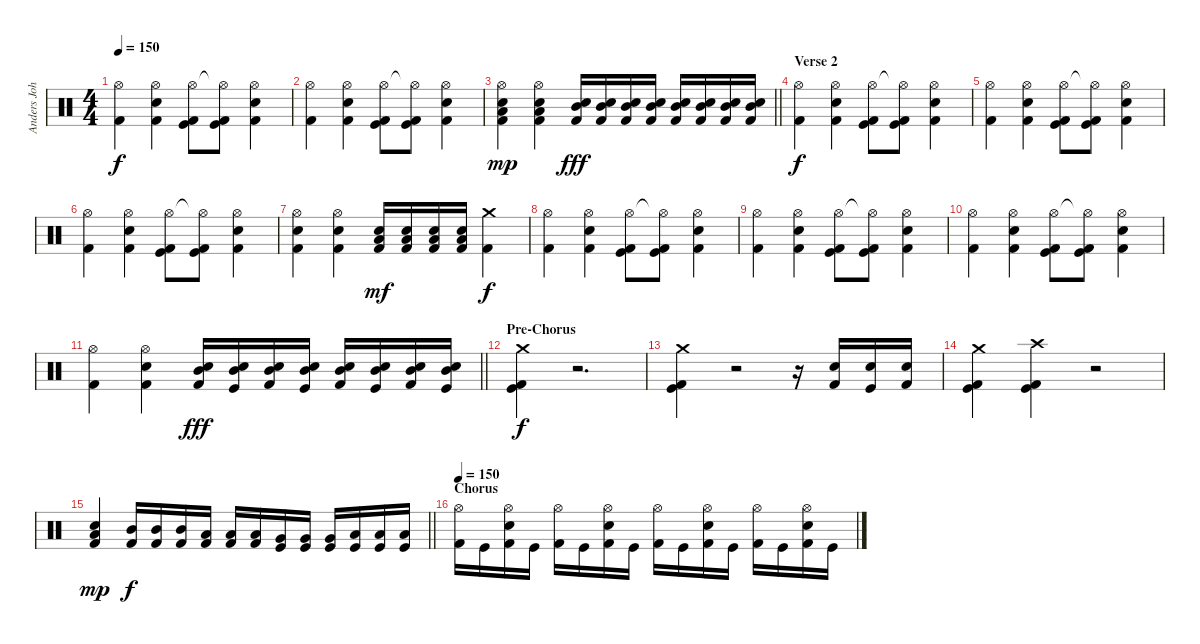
\track ("Anders Johansson" "Anders Joh") {instrument percussion}
\staff {score}
\articulation defaults
\ts (4 4)
\tempo 150
\clef neutral
\ks c
("Hi-Hat (open)" "Kick (hit) 2").4{dy f} ("Hi-Hat (open)" "Electric Snare (hit)" "Kick (hit) 2").4 ("Hi-Hat (open)" "Kick (hit)" "Kick (hit) 2").8 ("Hi-Hat (open)"{t} "Kick (hit)" "Kick (hit) 2").8 ("Hi-Hat (open)" "Electric Snare (hit)" "Kick (hit) 2").4 |
("Hi-Hat (open)" "Kick (hit) 2").4 ("Hi-Hat (open)" "Electric Snare (hit)" "Kick (hit) 2").4 ("Hi-Hat (open)" "Kick (hit)" "Kick (hit) 2").8 ("Hi-Hat (open)"{t} "Kick (hit)" "Kick (hit) 2").8 ("Hi-Hat (open)" "Electric Snare (hit)" "Kick (hit) 2").4 |
\barLineRight lightlight
("Hi-Hat (open)" "Low Tom (hit)" "Electric Snare (hit)" "Kick (hit) 2").4{dy mp} ("Hi-Hat (open)" "Low Tom (hit)" "Electric Snare (hit)" "Kick (hit) 2").4 ("Mid Tom (hit)" "Electric Snare (hit)" "Kick (hit) 2").16{dy fff} ("Mid Tom (hit)" "Electric Snare (hit)" "Kick (hit) 2").16 ("Mid Tom (hit)" "Electric Snare (hit)" "Kick (hit) 2").16 ("Mid Tom (hit)" "Electric Snare (hit)" "Kick (hit) 2").16 ("Mid Tom (hit)" "Electric Snare (hit)" "Kick (hit) 2").16 ("Mid Tom (hit)" "Electric Snare (hit)" "Kick (hit) 2").16 ("Mid Tom (hit)" "Electric Snare (hit)" "Kick (hit) 2").16 ("Mid Tom (hit)" "Electric Snare (hit)" "Kick (hit) 2").16 |
\section ("" "Verse 2")
("Hi-Hat (open)" "Kick (hit) 2").4{dy f} ("Hi-Hat (open)" "Electric Snare (hit)" "Kick (hit) 2").4 ("Hi-Hat (open)" "Kick (hit)" "Kick (hit) 2").8 ("Hi-Hat (open)"{t} "Kick (hit)" "Kick (hit) 2").8 ("Hi-Hat (open)" "Electric Snare (hit)" "Kick (hit) 2").4 |
("Hi-Hat (open)" "Kick (hit) 2").4 ("Hi-Hat (open)" "Electric Snare (hit)" "Kick (hit) 2").4 ("Hi-Hat (open)" "Kick (hit)" "Kick (hit) 2").8 ("Hi-Hat (open)"{t} "Kick (hit)" "Kick (hit) 2").8 ("Hi-Hat (open)" "Electric Snare (hit)" "Kick (hit) 2").4 |
("Hi-Hat (open)" "Kick (hit) 2").4 ("Hi-Hat (open)" "Electric Snare (hit)" "Kick (hit) 2").4 ("Hi-Hat (open)" "Kick (hit)" "Kick (hit) 2").8 ("Hi-Hat (open)"{t} "Kick (hit)" "Kick (hit) 2").8 ("Hi-Hat (open)" "Electric Snare (hit)" "Kick (hit) 2").4 |
("Hi-Hat (open)" "Electric Snare (hit)" "Kick (hit) 2").4 ("Hi-Hat (open)" "Electric Snare (hit)" "Kick (hit) 2").4 ("Low Tom (hit)" "Electric Snare (hit)" "Kick (hit) 2").16{dy mf} ("Low Tom (hit)" "Electric Snare (hit)" "Kick (hit) 2").16 ("Low Tom (hit)" "Electric Snare (hit)" "Kick (hit) 2").16 ("Low Tom (hit)" "Electric Snare (hit)" "Kick (hit) 2").16 ("Crash medium (hit)" "Kick (hit) 2").4{dy f} |
("Hi-Hat (open)" "Kick (hit) 2").4 ("Hi-Hat (open)" "Electric Snare (hit)" "Kick (hit) 2").4 ("Hi-Hat (open)" "Kick (hit)" "Kick (hit) 2").8 ("Hi-Hat (open)"{t} "Kick (hit)" "Kick (hit) 2").8 ("Hi-Hat (open)" "Electric Snare (hit)" "Kick (hit) 2").4 |
("Hi-Hat (open)" "Kick (hit) 2").4 ("Hi-Hat (open)" "Electric Snare (hit)" "Kick (hit) 2").4 ("Hi-Hat (open)" "Kick (hit)" "Kick (hit) 2").8 ("Hi-Hat (open)"{t} "Kick (hit)" "Kick (hit) 2").8 ("Hi-Hat (open)" "Electric Snare (hit)" "Kick (hit) 2").4 |
("Hi-Hat (open)" "Kick (hit) 2").4 ("Hi-Hat (open)" "Electric Snare (hit)" "Kick (hit) 2").4 ("Hi-Hat (open)" "Kick (hit)" "Kick (hit) 2").8 ("Hi-Hat (open)"{t} "Kick (hit)" "Kick (hit) 2").8 ("Hi-Hat (open)" "Electric Snare (hit)" "Kick (hit) 2").4 |
\barLineRight lightlight
("Hi-Hat (open)" "Kick (hit) 2").4 ("Hi-Hat (open)" "Electric Snare (hit)" "Kick (hit) 2").4 ("Mid Tom (hit)" "Electric Snare (hit)" "Kick (hit) 2").16{dy fff} ("Mid Tom (hit)" "Electric Snare (hit)" "Kick (hit)").16 ("Mid Tom (hit)" "Electric Snare (hit)" "Kick (hit) 2").16 ("Mid Tom (hit)" "Electric Snare (hit)" "Kick (hit)").16 ("Mid Tom (hit)" "Electric Snare (hit)" "Kick (hit) 2").16 ("Mid Tom (hit)" "Electric Snare (hit)" "Kick (hit)").16 ("Mid Tom (hit)" "Electric Snare (hit)" "Kick (hit) 2").16 ("Mid Tom (hit)" "Electric Snare (hit)" "Kick (hit)").16 |
\section ("" "Pre-Chorus")
("Crash medium (hit)" "Kick (hit)" "Kick (hit) 2").4{dy f} r.2{d} |
("Crash medium (hit)" "Kick (hit)" "Kick (hit) 2").4 r.2 r.16 ("Electric Snare (hit)" "Kick (hit) 2").16 ("Electric Snare (hit)" "Kick (hit)").16 ("Electric Snare (hit)" "Kick (hit) 2").16 |
("Crash medium (hit)" "Kick (hit)" "Kick (hit) 2").4 ("Crash high (hit)" "Kick (hit)" "Kick (hit) 2").4 r.2 |
\barLineRight lightlight
("Low Tom (hit)" "Electric Snare (hit)" "Kick (hit) 2").4{dy mp} ("Mid Tom (hit)" "Kick (hit) 2").16{dy f} ("Mid Tom (hit)" "Kick (hit) 2").16 ("Mid Tom (hit)" "Kick (hit) 2").16 ("Low Tom (hit)" "Kick (hit) 2").16 ("Low Tom (hit)" "Kick (hit) 2").16 ("Low Tom (hit)" "Kick (hit) 2").16 ("Very Low Tom (hit)" "Kick (hit)").16 ("Very Low Tom (hit)" "Kick (hit)").16 ("Very Low Tom (hit)" "Kick (hit)").16 ("Low Floor Tom (hit)" "Kick (hit)").16 ("Low Floor Tom (hit)" "Kick (hit)").16 ("Low Floor Tom (hit)" "Kick (hit)").16 |
\section ("" "Chorus")
\tempo 150
("Hi-Hat (open)" "Kick (hit) 2").16 "Kick (hit)".16 ("Hi-Hat (open)" "Electric Snare (hit)" "Kick (hit) 2").16 "Kick (hit)".16 ("Hi-Hat (open)" "Kick (hit) 2").16 "Kick (hit)".16 ("Hi-Hat (open)" "Electric Snare (hit)" "Kick (hit) 2").16 "Kick (hit)".16 ("Hi-Hat (open)" "Kick (hit) 2").16 "Kick (hit)".16 ("Hi-Hat (open)" "Electric Snare (hit)" "Kick (hit) 2").16 "Kick (hit)".16 ("Hi-Hat (open)" "Kick (hit) 2").16 "Kick (hit)".16 ("Hi-Hat (open)" "Electric Snare (hit)" "Kick (hit) 2").16 "Kick (hit)".16
